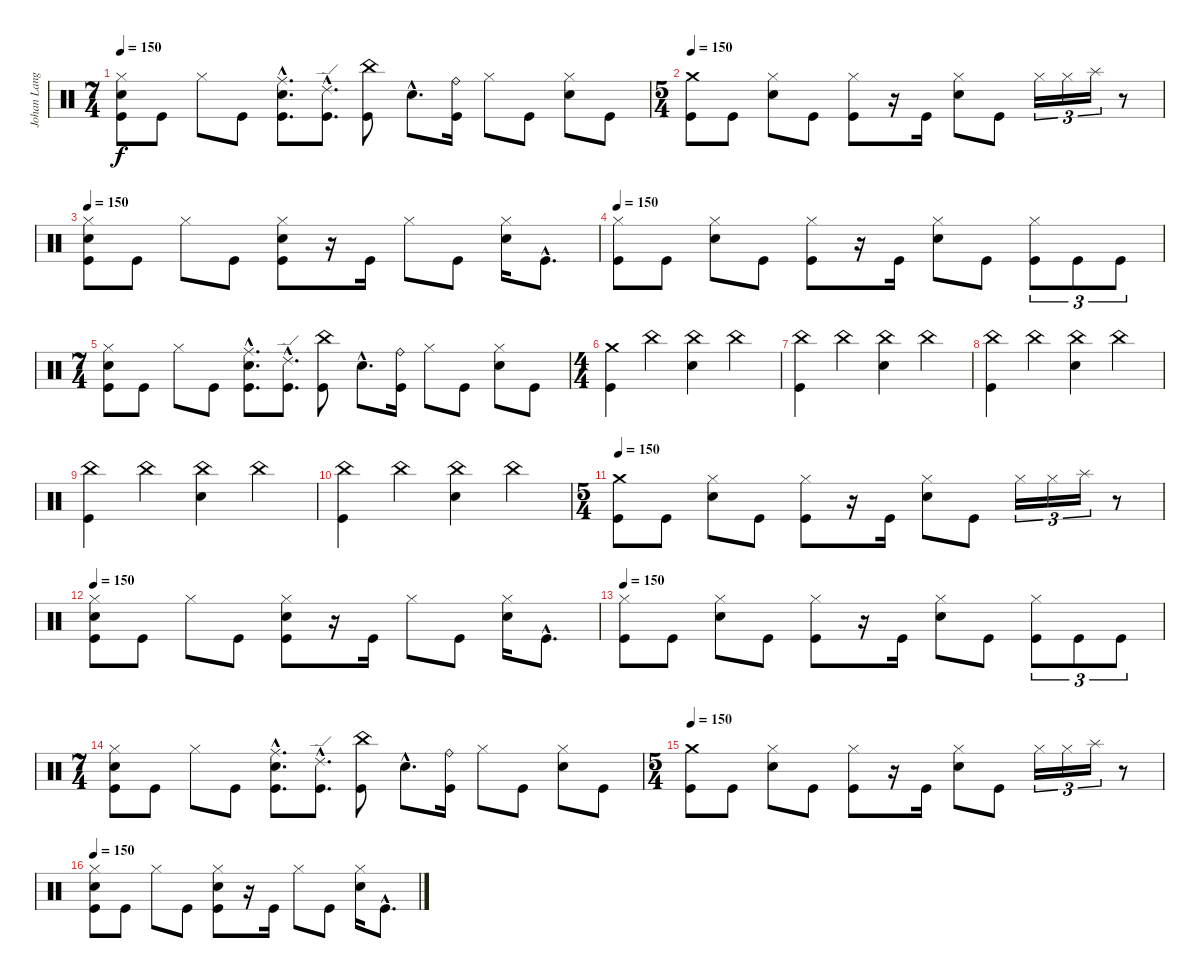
\track ("Johan Langell" "Johan Lang") {instrument percussion}
\staff {score}
\articulation defaults
\ts (7 4)
\tempo 150
\clef neutral
\ks c
("Hi-Hat (closed)" "Electric Snare (hit)" "Kick (hit)").8{dy f} "Kick (hit)".8 "Hi-Hat (closed)".8 "Kick (hit)".8 ("Ride (middle)"{hac} "Electric Snare (hit)"{hac} "Kick (hit)"{hac}).8{d} ("Ride (edge) 2"{hac} "Kick (hit)"{hac}).8{d} ("China (hit)" "Kick (hit)").8 "Electric Snare (hit)"{hac}.8{d} ("Ride (bell)" "Kick (hit)").16 "Hi-Hat (closed)".8 "Kick (hit)".8 ("Hi-Hat (closed)" "Electric Snare (hit)").8 "Kick (hit)".8 |
\ts (5 4)
\tempo 150
("Crash medium (hit)" "Kick (hit)").8 "Kick (hit)".8 ("Hi-Hat (closed)" "Electric Snare (hit)").8 "Kick (hit)".8 ("Hi-Hat (closed)" "Kick (hit)").8 r.16 "Kick (hit)".16 ("Hi-Hat (closed)" "Electric Snare (hit)").8 "Kick (hit)".8 "Hi-Hat (closed)".16{tu (3 2)} "Hi-Hat (closed)".16{tu (3 2)} "Splash (hit)".16{tu (3 2)} r.8 |
\tempo 150
("Hi-Hat (closed)" "Electric Snare (hit)" "Kick (hit)").8 "Kick (hit)".8 "Hi-Hat (closed)".8 "Kick (hit)".8 ("Hi-Hat (closed)" "Electric Snare (hit)" "Kick (hit)").8 r.16 "Kick (hit)".16 "Hi-Hat (closed)".8 "Kick (hit)".8 ("Hi-Hat (closed)" "Electric Snare (hit)").16 "Kick (hit)"{hac}.8{d} |
\tempo 150
("Hi-Hat (closed)" "Kick (hit)").8 "Kick (hit)".8 ("Hi-Hat (closed)" "Electric Snare (hit)").8 "Kick (hit)".8 ("Hi-Hat (closed)" "Kick (hit)").8 r.16 "Kick (hit)".16 ("Hi-Hat (closed)" "Electric Snare (hit)").8 "Kick (hit)".8 ("Hi-Hat (closed)" "Kick (hit)").8{tu (3 2)} "Kick (hit)".8{tu (3 2)} "Kick (hit)".8{tu (3 2)} |
\ts (7 4)
("Hi-Hat (closed)" "Electric Snare (hit)" "Kick (hit)").8 "Kick (hit)".8 "Hi-Hat (closed)".8 "Kick (hit)".8 ("Ride (middle)"{hac} "Electric Snare (hit)"{hac} "Kick (hit)"{hac}).8{d} ("Ride (edge) 2"{hac} "Kick (hit)"{hac}).8{d} ("China (hit)" "Kick (hit)").8 "Electric Snare (hit)"{hac}.8{d} ("Ride (bell)" "Kick (hit)").16 "Hi-Hat (closed)".8 "Kick (hit)".8 ("Hi-Hat (closed)" "Electric Snare (hit)").8 "Kick (hit)".8 |
\ts (4 4)
("Crash medium (hit)" "Kick (hit)").4 "China (hit)".4 ("China (hit)" "Electric Snare (hit)").4 "China (hit)".4 |
("China (hit)" "Kick (hit)").4 "China (hit)".4 ("China (hit)" "Electric Snare (hit)").4 "China (hit)".4 |
("China (hit)" "Kick (hit)").4 "China (hit)".4 ("China (hit)" "Electric Snare (hit)").4 "China (hit)".4 |
("China (hit)" "Kick (hit)").4 "China (hit)".4 ("China (hit)" "Electric Snare (hit)").4 "China (hit)".4 |
("China (hit)" "Kick (hit)").4 "China (hit)".4 ("China (hit)" "Electric Snare (hit)").4 "China (hit)".4 |
\ts (5 4)
\tempo 150
("Crash medium (hit)" "Kick (hit)").8 "Kick (hit)".8 ("Hi-Hat (closed)" "Electric Snare (hit)").8 "Kick (hit)".8 ("Hi-Hat (closed)" "Kick (hit)").8 r.16 "Kick (hit)".16 ("Hi-Hat (closed)" "Electric Snare (hit)").8 "Kick (hit)".8 "Hi-Hat (closed)".16{tu (3 2)} "Hi-Hat (closed)".16{tu (3 2)} "Splash (hit)".16{tu (3 2)} r.8 |
\tempo 150
("Hi-Hat (closed)" "Electric Snare (hit)" "Kick (hit)").8 "Kick (hit)".8 "Hi-Hat (closed)".8 "Kick (hit)".8 ("Hi-Hat (closed)" "Electric Snare (hit)" "Kick (hit)").8 r.16 "Kick (hit)".16 "Hi-Hat (closed)".8 "Kick (hit)".8 ("Hi-Hat (closed)" "Electric Snare (hit)").16 "Kick (hit)"{hac}.8{d} |
\tempo 150
("Hi-Hat (closed)" "Kick (hit)").8 "Kick (hit)".8 ("Hi-Hat (closed)" "Electric Snare (hit)").8 "Kick (hit)".8 ("Hi-Hat (closed)" "Kick (hit)").8 r.16 "Kick (hit)".16 ("Hi-Hat (closed)" "Electric Snare (hit)").8 "Kick (hit)".8 ("Hi-Hat (closed)" "Kick (hit)").8{tu (3 2)} "Kick (hit)".8{tu (3 2)} "Kick (hit)".8{tu (3 2)} |
\ts (7 4)
("Hi-Hat (closed)" "Electric Snare (hit)" "Kick (hit)").8 "Kick (hit)".8 "Hi-Hat (closed)".8 "Kick (hit)".8 ("Ride (middle)"{hac} "Electric Snare (hit)"{hac} "Kick (hit)"{hac}).8{d} ("Ride (edge) 2"{hac} "Kick (hit)"{hac}).8{d} ("China (hit)" "Kick (hit)").8 "Electric Snare (hit)"{hac}.8{d} ("Ride (bell)" "Kick (hit)").16 "Hi-Hat (closed)".8 "Kick (hit)".8 ("Hi-Hat (closed)" "Electric Snare (hit)").8 "Kick (hit)".8 |
\ts (5 4)
\tempo 150
("Crash medium (hit)" "Kick (hit)").8 "Kick (hit)".8 ("Hi-Hat (closed)" "Electric Snare (hit)").8 "Kick (hit)".8 ("Hi-Hat (closed)" "Kick (hit)").8 r.16 "Kick (hit)".16 ("Hi-Hat (closed)" "Electric Snare (hit)").8 "Kick (hit)".8 "Hi-Hat (closed)".16{tu (3 2)} "Hi-Hat (closed)".16{tu (3 2)} "Splash (hit)".16{tu (3 2)} r.8 |
\tempo 150
("Hi-Hat (closed)" "Electric Snare (hit)" "Kick (hit)").8 "Kick (hit)".8 "Hi-Hat (closed)".8 "Kick (hit)".8 ("Hi-Hat (closed)" "Electric Snare (hit)" "Kick (hit)").8 r.16 "Kick (hit)".16 "Hi-Hat (closed)".8 "Kick (hit)".8 ("Hi-Hat (closed)" "Electric Snare (hit)").16 "Kick (hit)"{hac}.8{d}
